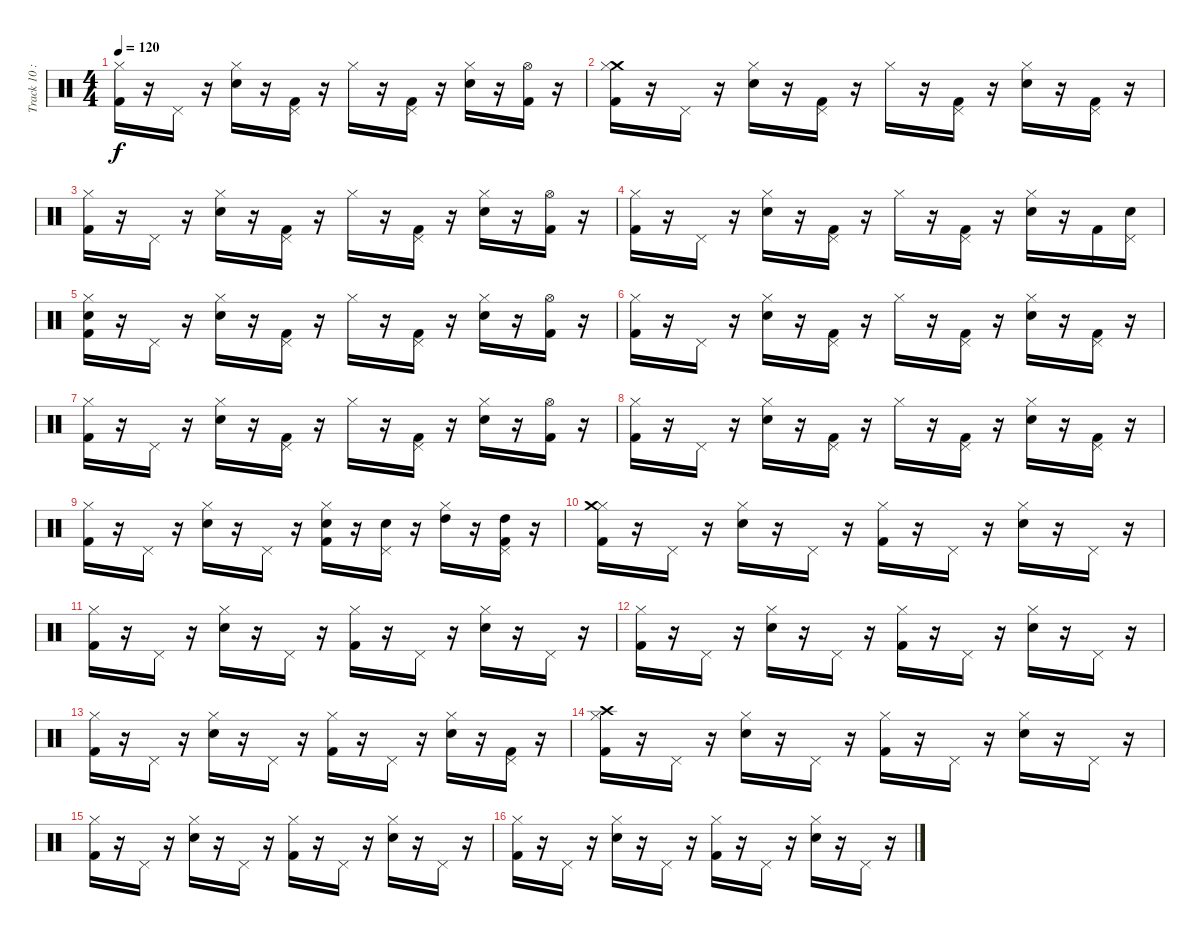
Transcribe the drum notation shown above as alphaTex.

\track ("Track 10 : unspecified" "Track 10 :") {instrument percussion}
\staff {score}
\articulation defaults
\ts (4 4)
\tempo 120
\clef neutral
\ks c
("Hi-Hat (closed)" "Kick (hit) 2").16{dy f} r.16 "Pedal Hi-Hat (hit)".16 r.16 ("Electric Snare (hit)" "Hi-Hat (closed)").16 r.16 ("Pedal Hi-Hat (hit)" "Kick (hit) 2").16 r.16 "Hi-Hat (closed)".16 r.16 ("Pedal Hi-Hat (hit)" "Kick (hit) 2").16 r.16 ("Electric Snare (hit)" "Hi-Hat (closed)").16 r.16 ("Hi-Hat (open)" "Kick (hit) 2").16 r.16 |
("Crash medium (hit)" "Hi-Hat (closed)" "Kick (hit) 2").16 r.16 "Pedal Hi-Hat (hit)".16 r.16 ("Hi-Hat (closed)" "Electric Snare (hit)").16 r.16 ("Pedal Hi-Hat (hit)" "Kick (hit) 2").16 r.16 "Hi-Hat (closed)".16 r.16 ("Pedal Hi-Hat (hit)" "Kick (hit) 2").16 r.16 ("Electric Snare (hit)" "Hi-Hat (closed)").16 r.16 ("Pedal Hi-Hat (hit)" "Kick (hit) 2").16 r.16 |
("Kick (hit) 2" "Hi-Hat (closed)").16 r.16 "Pedal Hi-Hat (hit)".16 r.16 ("Electric Snare (hit)" "Hi-Hat (closed)").16 r.16 ("Kick (hit) 2" "Pedal Hi-Hat (hit)").16 r.16 "Hi-Hat (closed)".16 r.16 ("Pedal Hi-Hat (hit)" "Kick (hit) 2").16 r.16 ("Electric Snare (hit)" "Hi-Hat (closed)").16 r.16 ("Kick (hit) 2" "Hi-Hat (open)").16 r.16 |
("Hi-Hat (closed)" "Kick (hit) 2").16 r.16 "Pedal Hi-Hat (hit)".16 r.16 ("Hi-Hat (closed)" "Electric Snare (hit)").16 r.16 ("Pedal Hi-Hat (hit)" "Kick (hit) 2").16 r.16 "Hi-Hat (closed)".16 r.16 ("Pedal Hi-Hat (hit)" "Kick (hit) 2").16 r.16 ("Hi-Hat (closed)" "Electric Snare (hit)").16 r.16 "Kick (hit) 2".16 ("Snare (hit)" "Pedal Hi-Hat (hit)").16 |
("Snare (hit)" "Hi-Hat (closed)" "Kick (hit) 2").16 r.16 "Pedal Hi-Hat (hit)".16 r.16 ("Electric Snare (hit)" "Hi-Hat (closed)").16 r.16 ("Kick (hit) 2" "Pedal Hi-Hat (hit)").16 r.16 "Hi-Hat (closed)".16 r.16 ("Kick (hit) 2" "Pedal Hi-Hat (hit)").16 r.16 ("Hi-Hat (closed)" "Electric Snare (hit)").16 r.16 ("Hi-Hat (open)" "Kick (hit) 2").16 r.16 |
("Kick (hit) 2" "Hi-Hat (closed)").16 r.16 "Pedal Hi-Hat (hit)".16 r.16 ("Electric Snare (hit)" "Hi-Hat (closed)").16 r.16 ("Pedal Hi-Hat (hit)" "Kick (hit) 2").16 r.16 "Hi-Hat (closed)".16 r.16 ("Pedal Hi-Hat (hit)" "Kick (hit) 2").16 r.16 ("Electric Snare (hit)" "Hi-Hat (closed)").16 r.16 ("Kick (hit) 2" "Pedal Hi-Hat (hit)").16 r.16 |
("Kick (hit) 2" "Hi-Hat (closed)").16 r.16 "Pedal Hi-Hat (hit)".16 r.16 ("Electric Snare (hit)" "Hi-Hat (closed)").16 r.16 ("Pedal Hi-Hat (hit)" "Kick (hit) 2").16 r.16 "Hi-Hat (closed)".16 r.16 ("Pedal Hi-Hat (hit)" "Kick (hit) 2").16 r.16 ("Hi-Hat (closed)" "Electric Snare (hit)").16 r.16 ("Hi-Hat (open)" "Kick (hit) 2").16 r.16 |
("Hi-Hat (closed)" "Kick (hit) 2").16 r.16 "Pedal Hi-Hat (hit)".16 r.16 ("Electric Snare (hit)" "Hi-Hat (closed)").16 r.16 ("Pedal Hi-Hat (hit)" "Kick (hit) 2").16 r.16 "Hi-Hat (closed)".16 r.16 ("Pedal Hi-Hat (hit)" "Kick (hit) 2").16 r.16 ("Hi-Hat (closed)" "Electric Snare (hit)").16 r.16 ("Pedal Hi-Hat (hit)" "Kick (hit) 2").16 r.16 |
("Kick (hit) 2" "Hi-Hat (closed)").16 r.16 "Pedal Hi-Hat (hit)".16 r.16 ("Electric Snare (hit)" "Hi-Hat (closed)").16 r.16 "Pedal Hi-Hat (hit)".16 r.16 ("Electric Snare (hit)" "Hi-Hat (closed)" "Kick (hit) 2").16 r.16 ("Electric Snare (hit)" "Pedal Hi-Hat (hit)").16 r.16 ("High Tom (hit)" "Hi-Hat (closed)").16 r.16 ("High Tom (hit)" "Pedal Hi-Hat (hit)" "Kick (hit) 2").16 r.16 |
("Hi-Hat (closed)" "Crash medium (hit)" "Kick (hit) 2").16 r.16 "Pedal Hi-Hat (hit)".16 r.16 ("Hi-Hat (closed)" "Electric Snare (hit)").16 r.16 "Pedal Hi-Hat (hit)".16 r.16 ("Hi-Hat (closed)" "Kick (hit) 2").16 r.16 "Pedal Hi-Hat (hit)".16 r.16 ("Electric Snare (hit)" "Hi-Hat (closed)").16 r.16 "Pedal Hi-Hat (hit)".16 r.16 |
("Kick (hit) 2" "Hi-Hat (closed)").16 r.16 "Pedal Hi-Hat (hit)".16 r.16 ("Electric Snare (hit)" "Hi-Hat (closed)").16 r.16 "Pedal Hi-Hat (hit)".16 r.16 ("Hi-Hat (closed)" "Kick (hit) 2").16 r.16 "Pedal Hi-Hat (hit)".16 r.16 ("Electric Snare (hit)" "Hi-Hat (closed)").16 r.16 "Pedal Hi-Hat (hit)".16 r.16 |
("Kick (hit) 2" "Hi-Hat (closed)").16 r.16 "Pedal Hi-Hat (hit)".16 r.16 ("Electric Snare (hit)" "Hi-Hat (closed)").16 r.16 "Pedal Hi-Hat (hit)".16 r.16 ("Kick (hit) 2" "Hi-Hat (closed)").16 r.16 "Pedal Hi-Hat (hit)".16 r.16 ("Electric Snare (hit)" "Hi-Hat (closed)").16 r.16 "Pedal Hi-Hat (hit)".16 r.16 |
("Kick (hit) 2" "Hi-Hat (closed)").16 r.16 "Pedal Hi-Hat (hit)".16 r.16 ("Electric Snare (hit)" "Hi-Hat (closed)").16 r.16 "Pedal Hi-Hat (hit)".16 r.16 ("Hi-Hat (closed)" "Kick (hit) 2").16 r.16 "Pedal Hi-Hat (hit)".16 r.16 ("Electric Snare (hit)" "Hi-Hat (closed)").16 r.16 ("Pedal Hi-Hat (hit)" "Kick (hit) 2").16 r.16 |
("Hi-Hat (closed)" "Crash high (hit)" "Kick (hit) 2").16 r.16 "Pedal Hi-Hat (hit)".16 r.16 ("Hi-Hat (closed)" "Electric Snare (hit)").16 r.16 "Pedal Hi-Hat (hit)".16 r.16 ("Hi-Hat (closed)" "Kick (hit) 2").16 r.16 "Pedal Hi-Hat (hit)".16 r.16 ("Electric Snare (hit)" "Hi-Hat (closed)").16 r.16 "Pedal Hi-Hat (hit)".16 r.16 |
("Kick (hit) 2" "Hi-Hat (closed)").16 r.16 "Pedal Hi-Hat (hit)".16 r.16 ("Electric Snare (hit)" "Hi-Hat (closed)").16 r.16 "Pedal Hi-Hat (hit)".16 r.16 ("Hi-Hat (closed)" "Kick (hit) 2").16 r.16 "Pedal Hi-Hat (hit)".16 r.16 ("Electric Snare (hit)" "Hi-Hat (closed)").16 r.16 "Pedal Hi-Hat (hit)".16 r.16 |
("Kick (hit) 2" "Hi-Hat (closed)").16 r.16 "Pedal Hi-Hat (hit)".16 r.16 ("Electric Snare (hit)" "Hi-Hat (closed)").16 r.16 "Pedal Hi-Hat (hit)".16 r.16 ("Kick (hit) 2" "Hi-Hat (closed)").16 r.16 "Pedal Hi-Hat (hit)".16 r.16 ("Electric Snare (hit)" "Hi-Hat (closed)").16 r.16 "Pedal Hi-Hat (hit)".16 r.16
